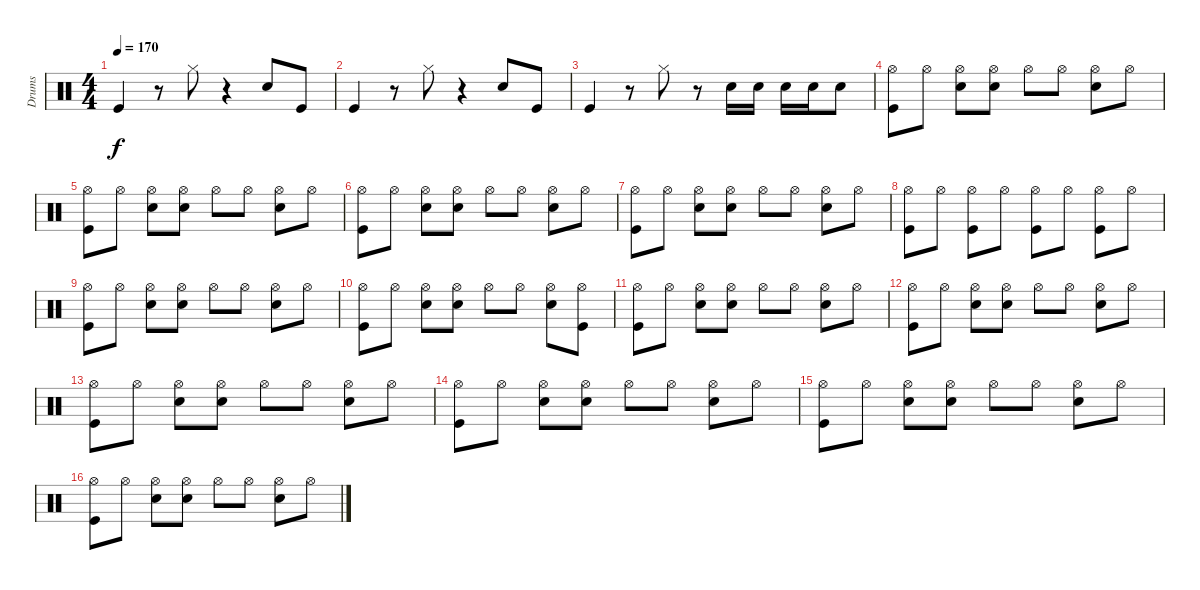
\track ("Drums" "Drums") {instrument percussion}
\staff {score}
\articulation defaults
\ts (4 4)
\tempo 170
\clef neutral
\ks c "Kick (hit)".4{dy f}
r.8 "Hi-Hat (closed)".8 r.4 "Snare (hit) 2".8 "Kick (hit)".8 |
"Kick (hit)".4 r.8 "Hi-Hat (closed)".8 r.4 "Snare (hit) 2".8 "Kick (hit)".8 |
"Kick (hit)".4 r.8 "Hi-Hat (closed)".8 r.8 "Snare (hit) 2".16 "Snare (hit) 2".16 "Snare (hit) 2".16 "Snare (hit) 2".16 "Snare (hit) 2".8 |
("Hi-Hat (open)" "Kick (hit)").8 "Hi-Hat (open)".8 ("Hi-Hat (open)" "Snare (hit) 2").8 ("Hi-Hat (open)" "Snare (hit) 2").8 "Hi-Hat (open)".8 "Hi-Hat (open)".8 ("Hi-Hat (open)" "Snare (hit) 2").8 "Hi-Hat (open)".8 |
("Kick (hit)" "Hi-Hat (open)").8 "Hi-Hat (open)".8 ("Hi-Hat (open)" "Snare (hit) 2").8 ("Hi-Hat (open)" "Snare (hit) 2").8 "Hi-Hat (open)".8 "Hi-Hat (open)".8 ("Hi-Hat (open)" "Snare (hit) 2").8 "Hi-Hat (open)".8 |
("Kick (hit)" "Hi-Hat (open)").8 "Hi-Hat (open)".8 ("Hi-Hat (open)" "Snare (hit) 2").8 ("Hi-Hat (open)" "Snare (hit) 2").8 "Hi-Hat (open)".8 "Hi-Hat (open)".8 ("Hi-Hat (open)" "Snare (hit) 2").8 "Hi-Hat (open)".8 |
("Kick (hit)" "Hi-Hat (open)").8 "Hi-Hat (open)".8 ("Hi-Hat (open)" "Snare (hit) 2").8 ("Hi-Hat (open)" "Snare (hit) 2").8 "Hi-Hat (open)".8 "Hi-Hat (open)".8 ("Hi-Hat (open)" "Snare (hit) 2").8 "Hi-Hat (open)".8 |
("Hi-Hat (open)" "Kick (hit)").8 "Hi-Hat (open)".8 ("Hi-Hat (open)" "Kick (hit)").8 "Hi-Hat (open)".8 ("Hi-Hat (open)" "Kick (hit)").8 "Hi-Hat (open)".8 ("Hi-Hat (open)" "Kick (hit)").8 "Hi-Hat (open)".8 |
("Kick (hit)" "Hi-Hat (open)").8 "Hi-Hat (open)".8 ("Hi-Hat (open)" "Snare (hit) 2").8 ("Hi-Hat (open)" "Snare (hit) 2").8 "Hi-Hat (open)".8 "Hi-Hat (open)".8 ("Hi-Hat (open)" "Snare (hit) 2").8 "Hi-Hat (open)".8 |
("Kick (hit)" "Hi-Hat (open)").8 "Hi-Hat (open)".8 ("Hi-Hat (open)" "Snare (hit) 2").8 ("Hi-Hat (open)" "Snare (hit) 2").8 "Hi-Hat (open)".8 "Hi-Hat (open)".8 ("Hi-Hat (open)" "Snare (hit) 2").8 ("Hi-Hat (open)" "Kick (hit)").8 |
("Kick (hit)" "Hi-Hat (open)").8 "Hi-Hat (open)".8 ("Hi-Hat (open)" "Snare (hit) 2").8 ("Hi-Hat (open)" "Snare (hit) 2").8 "Hi-Hat (open)".8 "Hi-Hat (open)".8 ("Hi-Hat (open)" "Snare (hit) 2").8 "Hi-Hat (open)".8 |
("Kick (hit)" "Hi-Hat (open)").8 "Hi-Hat (open)".8 ("Hi-Hat (open)" "Snare (hit) 2").8 ("Hi-Hat (open)" "Snare (hit) 2").8 "Hi-Hat (open)".8 "Hi-Hat (open)".8 ("Hi-Hat (open)" "Snare (hit) 2").8 "Hi-Hat (open)".8 |
("Kick (hit)" "Hi-Hat (open)").8 "Hi-Hat (open)".8 ("Hi-Hat (open)" "Snare (hit) 2").8 ("Hi-Hat (open)" "Snare (hit) 2").8 "Hi-Hat (open)".8 "Hi-Hat (open)".8 ("Hi-Hat (open)" "Snare (hit) 2").8 "Hi-Hat (open)".8 |
("Kick (hit)" "Hi-Hat (open)").8 "Hi-Hat (open)".8 ("Hi-Hat (open)" "Snare (hit) 2").8 ("Hi-Hat (open)" "Snare (hit) 2").8 "Hi-Hat (open)".8 "Hi-Hat (open)".8 ("Hi-Hat (open)" "Snare (hit) 2").8 "Hi-Hat (open)".8 |
("Kick (hit)" "Hi-Hat (open)").8 "Hi-Hat (open)".8 ("Hi-Hat (open)" "Snare (hit) 2").8 ("Hi-Hat (open)" "Snare (hit) 2").8 "Hi-Hat (open)".8 "Hi-Hat (open)".8 ("Hi-Hat (open)" "Snare (hit) 2").8 "Hi-Hat (open)".8 |
("Hi-Hat (open)" "Kick (hit)").8 "Hi-Hat (open)".8 ("Hi-Hat (open)" "Snare (hit) 2").8 ("Hi-Hat (open)" "Snare (hit) 2").8 "Hi-Hat (open)".8 "Hi-Hat (open)".8 ("Hi-Hat (open)" "Snare (hit) 2").8 "Hi-Hat (open)".8
